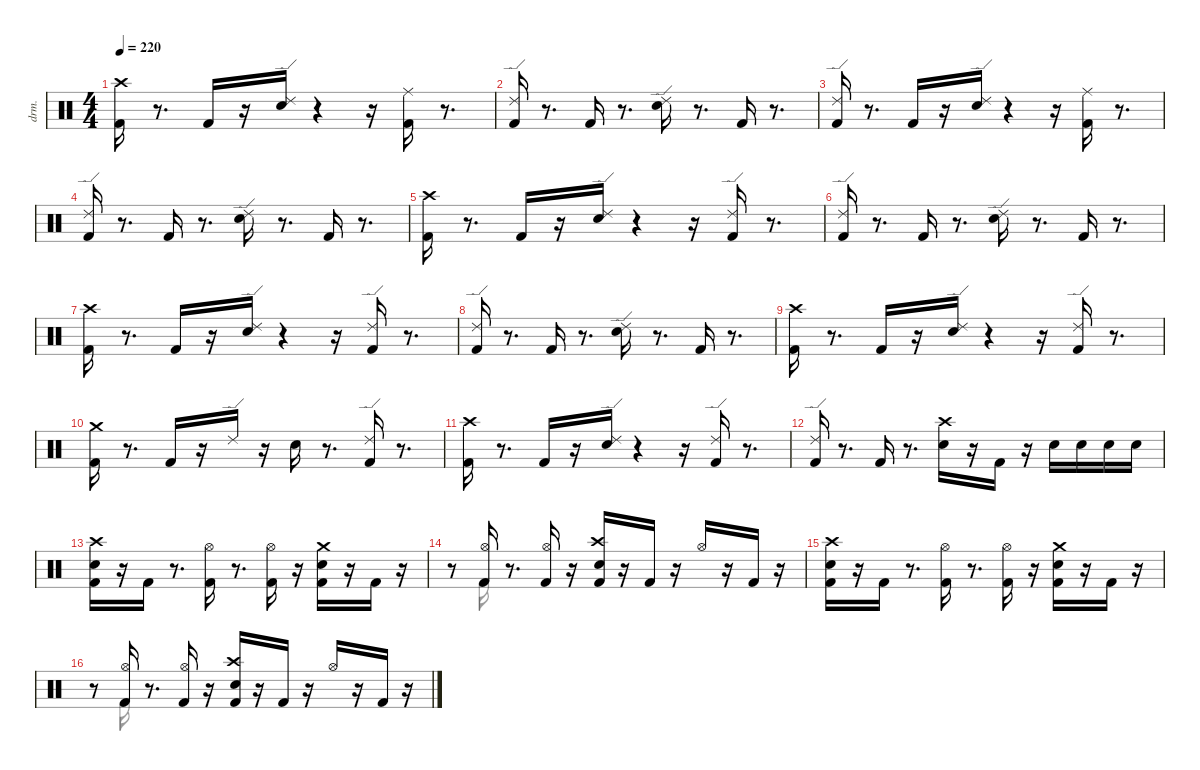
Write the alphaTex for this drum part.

\defaultSystemsLayout 4
\hideDynamics
\bracketExtendMode nobrackets
\otherSystemsTrackNameOrientation horizontal
\track ("EZdrummer 3" "drm.") {mute instrument percussion}
\staff {score}
\articulation defaults
\voice
\ts (4 4)
\tempo 220
\clef neutral
\ks c
("Kick (hit) 2" "Crash high (hit)"{acc #}).16{dy fff beam Down} r.8{d beam Down} "Kick (hit) 2".16{dy ff beam Up} r.16{beam Up} ("Snare (hit) 2" "Ride (edge) 2").16{beam Down} r.4{beam Down} r.16{beam Down} ("Kick (hit) 2" "Ride (middle)"{acc #}).16{dy f beam Down} r.8{d beam Down} |
("Kick (hit) 2" "Ride (edge) 2").16{dy ff beam Up} r.8{d beam Up} "Kick (hit) 2".16{dy f beam Up} r.8{d beam Up} ("Snare (hit) 2" "Ride (edge) 2").16{dy ff beam Down} r.8{d beam Down} "Kick (hit) 2".16{dy mf beam Up} r.8{d beam Up} |
("Kick (hit) 2" "Ride (edge) 2").16{dy fff beam Up} r.8{d beam Up} "Kick (hit) 2".16{dy ff beam Up} r.16{beam Up} ("Snare (hit) 2" "Ride (edge) 2").16{beam Down} r.4{beam Down} r.16{beam Down} ("Kick (hit) 2" "Ride (middle)"{acc #}).16{dy f beam Down} r.8{d beam Down} |
("Kick (hit) 2" "Ride (edge) 2").16{dy ff beam Up} r.8{d beam Up} "Kick (hit) 2".16{dy f beam Up} r.8{d beam Up} ("Snare (hit) 2" "Ride (edge) 2").16{dy ff beam Down} r.8{d beam Down} "Kick (hit) 2".16{dy mf beam Up} r.8{d beam Up} |
("Kick (hit) 2" "Crash high (hit)"{acc #}).16{dy fff beam Down} r.8{d beam Down} "Kick (hit) 2".16{dy ff beam Up} r.16{beam Up} ("Snare (hit) 2" "Ride (edge) 2").16{beam Down} r.4{beam Down} r.16{beam Down} ("Kick (hit) 2" "Ride (edge) 2").16{dy f beam Up} r.8{d beam Up} |
("Kick (hit) 2" "Ride (edge) 2").16{dy ff beam Up} r.8{d beam Up} "Kick (hit) 2".16{dy f beam Up} r.8{d beam Up} ("Snare (hit) 2" "Ride (edge) 2").16{dy ff beam Down} r.8{d beam Down} "Kick (hit) 2".16{dy mf beam Up} r.8{d beam Up} |
("Kick (hit) 2" "Crash high (hit)"{acc #}).16{dy fff beam Down} r.8{d beam Down} "Kick (hit) 2".16{dy ff beam Up} r.16{beam Up} ("Snare (hit) 2" "Ride (edge) 2").16{beam Down} r.4{beam Down} r.16{beam Down} ("Kick (hit) 2" "Ride (edge) 2").16{dy f beam Up} r.8{d beam Up} |
("Kick (hit) 2" "Ride (edge) 2").16{dy ff beam Up} r.8{d beam Up} "Kick (hit) 2".16{dy f beam Up} r.8{d beam Up} ("Snare (hit) 2" "Ride (edge) 2").16{dy ff beam Down} r.8{d beam Down} "Kick (hit) 2".16{dy mf beam Up} r.8{d beam Up} |
("Kick (hit) 2" "Crash high (hit)"{acc #}).16{dy fff beam Down} r.8{d beam Down} "Kick (hit) 2".16{dy ff beam Up} r.16{beam Up} ("Snare (hit) 2" "Ride (edge) 2").16{beam Down} r.4{beam Down} r.16{beam Down} ("Kick (hit) 2" "Ride (edge) 2").16{dy f beam Up} r.8{d beam Up} |
("Kick (hit) 2" "Crash medium (hit)").16{dy fff beam Down} r.8{d beam Down} "Kick (hit) 2".16{dy f beam Up} r.16{beam Up} "Ride (edge) 2".16{beam Down} r.16{beam Down} "Snare (hit) 2".16{dy ff beam Down} r.8{d beam Down} ("Kick (hit) 2" "Ride (edge) 2").16{dy mf beam Up} r.8{d beam Up} |
("Kick (hit) 2" "Crash high (hit)"{acc #}).16{dy fff beam Down} r.8{d beam Down} "Kick (hit) 2".16{dy ff beam Up} r.16{beam Up} ("Snare (hit) 2" "Ride (edge) 2").16{beam Down} r.4{beam Down} r.16{beam Down} ("Kick (hit) 2" "Ride (edge) 2").16{dy f beam Up} r.8{d beam Up} |
("Kick (hit) 2" "Ride (edge) 2").16{dy fff beam Up} r.8{d beam Up} "Kick (hit) 2".16{dy f beam Up} r.8{d beam Up} ("Snare (hit) 2" "Crash high (hit)"{acc #}).16{dy fff beam Down} r.16{beam Down} "Kick (hit) 2".16{dy ff beam Up} r.16{beam Up} "Snare (hit) 2".16{dy mp beam Down} "Snare (hit) 2".16{dy pp beam Down} "Snare (hit) 2".16{dy ff beam Down} "Snare (hit) 2".16{dy fff beam Down} |
("Kick (hit) 2" "Snare (hit) 2" "Crash high (hit)"{acc #}).16{dy ff beam Down} r.16{beam Down} "Kick (hit) 2".16{dy f beam Up} r.8{d beam Up} ("Kick (hit) 2" "Hi-Hat (open)"{acc #}).16{dy mf beam Down} r.8{d beam Down} ("Kick (hit) 2" "Hi-Hat (open)"{acc #}).16{dy f beam Down} r.16{beam Down} ("Kick (hit) 2" "Snare (hit) 2" "Crash medium (hit)").16{dy fff beam Down} r.16{beam Down} "Kick (hit) 2".16{dy f beam Up} r.16{beam Up} |
r.8{beam Up} ("Kick (hit) 2" "Hi-Hat (open)"{acc #}).16{dy mf beam Up} r.8{d beam Up} ("Kick (hit) 2" "Hi-Hat (open)"{acc #}).16{dy f beam Up} r.16{beam Up} ("Kick (hit) 2" "Snare (hit) 2" "Crash high (hit)"{acc #}).16{dy fff beam Up} r.16{beam Up} "Kick (hit) 2".16{dy f beam Up} r.16{beam Up} "Hi-Hat (open)"{acc #}.16{dy ff beam Up} r.16{beam Up} "Kick (hit) 2".16{dy mf beam Up} r.16{beam Up} |
("Kick (hit) 2" "Snare (hit) 2" "Crash high (hit)"{acc #}).16{dy ff beam Down} r.16{beam Down} "Kick (hit) 2".16{dy f beam Up} r.8{d beam Up} ("Kick (hit) 2" "Hi-Hat (open)"{acc #}).16{dy ff beam Down} r.8{d beam Down} ("Kick (hit) 2" "Hi-Hat (open)"{acc #}).16{beam Down} r.16{beam Down} ("Kick (hit) 2" "Snare (hit) 2" "Crash medium (hit)").16{dy fff beam Down} r.16{beam Down} "Kick (hit) 2".16{dy f beam Up} r.16{beam Up} |
r.8{beam Up} ("Kick (hit) 2" "Hi-Hat (open)"{acc #}).16{dy mf beam Up} r.8{d beam Up} ("Kick (hit) 2" "Hi-Hat (open)"{acc #}).16{dy f beam Up} r.16{beam Up} ("Crash high (hit)"{acc #} "Kick (hit) 2" "Snare (hit) 2").16{dy ff beam Up} r.16{beam Up} "Kick (hit) 2".16{dy f beam Up} r.16{beam Up} "Hi-Hat (open)"{acc #}.16{dy ff beam Up} r.16{beam Up} "Kick (hit) 2".16{dy mf beam Up} r.16{beam Up}
\voice
\clef neutral
\ottava regular
\simile none
\ks c
|
|
|
|
|
|
|
|
|
|
|
|
|
r.8{beam Down} "Kick (hit) 2".16{beam Down} |
|
r.8{beam Down} "Kick (hit) 2".16{beam Down}
